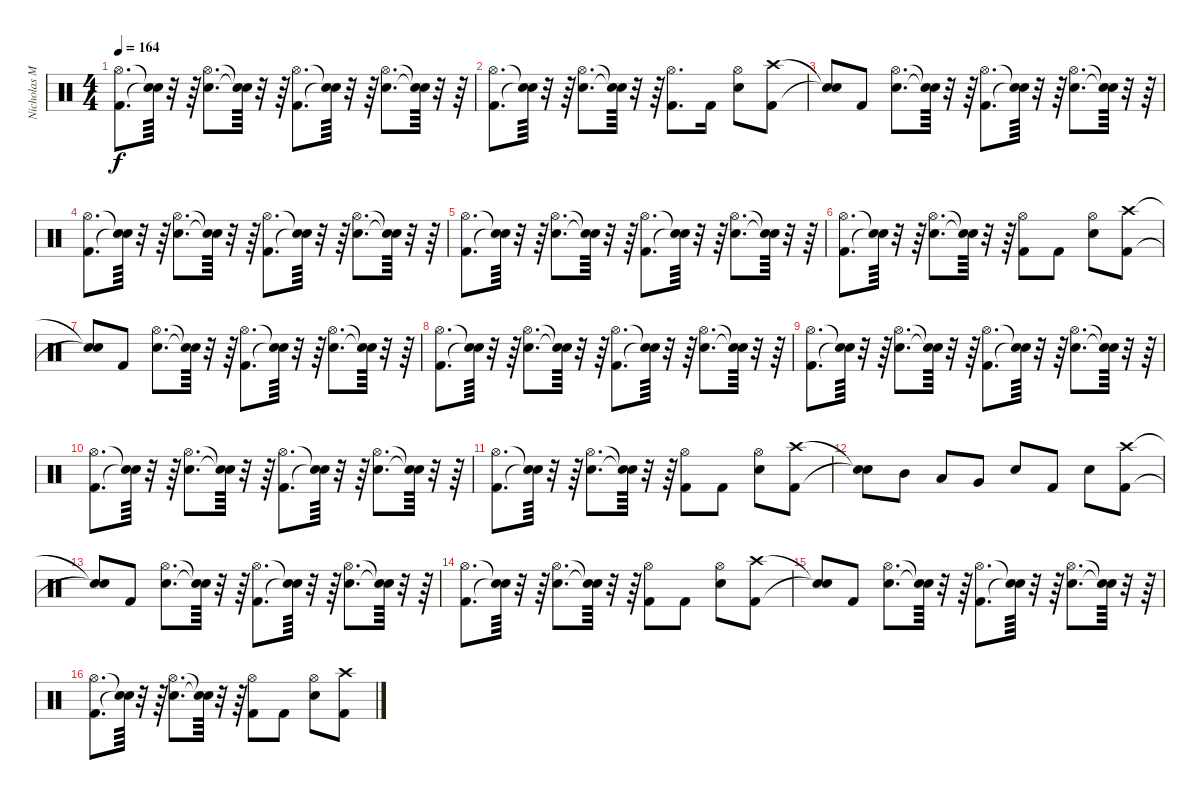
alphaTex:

\track ("Nicholas McBrain (Drums)" "Nicholas M") {instrument percussion}
\staff {score}
\articulation defaults
\ts (4 4)
\tempo 164
\clef neutral
\ks c
("Kick (hit) 2" "Hi-Hat (open)").8{d dy f} ("Snare (hit)"{t} "Snare (hit)"{t}).64 r.32 r.64 ("Snare (hit) 2" "Hi-Hat (open)").8{d} ("Snare (hit)"{t} "Snare (hit)"{t}).64 r.32 r.64 ("Kick (hit) 2" "Hi-Hat (open)").8{d} ("Snare (hit)"{t} "Snare (hit)"{t}).64 r.32 r.64 ("Snare (hit) 2" "Hi-Hat (open)").8{d} ("Snare (hit)"{t} "Snare (hit)"{t}).64 r.32 r.64 |
("Kick (hit) 2" "Hi-Hat (open)").8{d} ("Snare (hit)"{t} "Snare (hit)"{t}).64 r.32 r.64 ("Snare (hit) 2" "Hi-Hat (open)").8{d} ("Snare (hit)"{t} "Snare (hit)"{t}).64 r.32 r.64 ("Kick (hit) 2" "Hi-Hat (open)").8{d} "Kick (hit) 2".16 ("Snare (hit) 2" "Hi-Hat (open)").8 ("Kick (hit) 2" "Crash high (hit)").8 |
("Snare (hit)"{t} "Snare (hit)"{t}).8 "Kick (hit) 2".8 ("Snare (hit) 2" "Hi-Hat (open)").8{d} ("Snare (hit)"{t} "Snare (hit)"{t}).64 r.32 r.64 ("Kick (hit) 2" "Hi-Hat (open)").8{d} ("Snare (hit)"{t} "Snare (hit)"{t}).64 r.32 r.64 ("Snare (hit) 2" "Hi-Hat (open)").8{d} ("Snare (hit)"{t} "Snare (hit)"{t}).64 r.32 r.64 |
("Kick (hit) 2" "Hi-Hat (open)").8{d} ("Snare (hit)"{t} "Snare (hit)"{t}).64 r.32 r.64 ("Snare (hit) 2" "Hi-Hat (open)").8{d} ("Snare (hit)"{t} "Snare (hit)"{t}).64 r.32 r.64 ("Kick (hit) 2" "Hi-Hat (open)").8{d} ("Snare (hit)"{t} "Snare (hit)"{t}).64 r.32 r.64 ("Snare (hit) 2" "Hi-Hat (open)").8{d} ("Snare (hit)"{t} "Snare (hit)"{t}).64 r.32 r.64 |
("Kick (hit) 2" "Hi-Hat (open)").8{d} ("Snare (hit)"{t} "Snare (hit)"{t}).64 r.32 r.64 ("Snare (hit) 2" "Hi-Hat (open)").8{d} ("Snare (hit)"{t} "Snare (hit)"{t}).64 r.32 r.64 ("Kick (hit) 2" "Hi-Hat (open)").8{d} ("Snare (hit)"{t} "Snare (hit)"{t}).64 r.32 r.64 ("Snare (hit) 2" "Hi-Hat (open)").8{d} ("Snare (hit)"{t} "Snare (hit)"{t}).64 r.32 r.64 |
("Kick (hit) 2" "Hi-Hat (open)").8{d} ("Snare (hit)"{t} "Snare (hit)"{t}).64 r.32 r.64 ("Snare (hit) 2" "Hi-Hat (open)").8{d} ("Snare (hit)"{t} "Snare (hit)"{t}).64 r.32 r.64 ("Kick (hit) 2" "Hi-Hat (open)").8 "Kick (hit) 2".8 ("Snare (hit) 2" "Hi-Hat (open)").8 ("Kick (hit) 2" "Crash high (hit)").8 |
("Snare (hit)"{t} "Snare (hit)"{t}).8 "Kick (hit) 2".8 ("Snare (hit) 2" "Hi-Hat (open)").8{d} ("Snare (hit)"{t} "Snare (hit)"{t}).64 r.32 r.64 ("Kick (hit) 2" "Hi-Hat (open)").8{d} ("Snare (hit)"{t} "Snare (hit)"{t}).64 r.32 r.64 ("Snare (hit) 2" "Hi-Hat (open)").8{d} ("Snare (hit)"{t} "Snare (hit)"{t}).64 r.32 r.64 |
("Kick (hit) 2" "Hi-Hat (open)").8{d} ("Snare (hit)"{t} "Snare (hit)"{t}).64 r.32 r.64 ("Snare (hit) 2" "Hi-Hat (open)").8{d} ("Snare (hit)"{t} "Snare (hit)"{t}).64 r.32 r.64 ("Kick (hit) 2" "Hi-Hat (open)").8{d} ("Snare (hit)"{t} "Snare (hit)"{t}).64 r.32 r.64 ("Snare (hit) 2" "Hi-Hat (open)").8{d} ("Snare (hit)"{t} "Snare (hit)"{t}).64 r.32 r.64 |
("Kick (hit) 2" "Hi-Hat (open)").8{d} ("Snare (hit)"{t} "Snare (hit)"{t}).64 r.32 r.64 ("Snare (hit) 2" "Hi-Hat (open)").8{d} ("Snare (hit)"{t} "Snare (hit)"{t}).64 r.32 r.64 ("Kick (hit) 2" "Hi-Hat (open)").8{d} ("Snare (hit)"{t} "Snare (hit)"{t}).64 r.32 r.64 ("Snare (hit) 2" "Hi-Hat (open)").8{d} ("Snare (hit)"{t} "Snare (hit)"{t}).64 r.32 r.64 |
("Kick (hit) 2" "Hi-Hat (open)").8{d} ("Snare (hit)"{t} "Snare (hit)"{t}).64 r.32 r.64 ("Snare (hit) 2" "Hi-Hat (open)").8{d} ("Snare (hit)"{t} "Snare (hit)"{t}).64 r.32 r.64 ("Kick (hit) 2" "Hi-Hat (open)").8{d} ("Snare (hit)"{t} "Snare (hit)"{t}).64 r.32 r.64 ("Snare (hit) 2" "Hi-Hat (open)").8{d} ("Snare (hit)"{t} "Snare (hit)"{t}).64 r.32 r.64 |
("Kick (hit) 2" "Hi-Hat (open)").8{d} ("Snare (hit)"{t} "Snare (hit)"{t}).64 r.32 r.64 ("Snare (hit) 2" "Hi-Hat (open)").8{d} ("Snare (hit)"{t} "Snare (hit)"{t}).64 r.32 r.64 ("Kick (hit) 2" "Hi-Hat (open)").8 "Kick (hit) 2".8 ("Snare (hit) 2" "Hi-Hat (open)").8 ("Kick (hit) 2" "Crash high (hit)").8 |
("Snare (hit)"{t} "Snare (hit)"{t}).8 "Mid Tom (hit)".8 "Low Tom (hit)".8 "Very Low Tom (hit)".8 "Snare (hit) 2".8 "Kick (hit) 2".8 "Snare (hit) 2".8 ("Kick (hit) 2" "Crash high (hit)").8 |
("Snare (hit)"{t} "Snare (hit)"{t}).8 "Kick (hit) 2".8 ("Snare (hit) 2" "Hi-Hat (open)").8{d} ("Snare (hit)"{t} "Snare (hit)"{t}).64 r.32 r.64 ("Kick (hit) 2" "Hi-Hat (open)").8{d} ("Snare (hit)"{t} "Snare (hit)"{t}).64 r.32 r.64 ("Snare (hit) 2" "Hi-Hat (open)").8{d} ("Snare (hit)"{t} "Snare (hit)"{t}).64 r.32 r.64 |
("Kick (hit) 2" "Hi-Hat (open)").8{d} ("Snare (hit)"{t} "Snare (hit)"{t}).64 r.32 r.64 ("Snare (hit) 2" "Hi-Hat (open)").8{d} ("Snare (hit)"{t} "Snare (hit)"{t}).64 r.32 r.64 ("Kick (hit) 2" "Hi-Hat (open)").8 "Kick (hit) 2".8 ("Snare (hit) 2" "Hi-Hat (open)").8 ("Kick (hit) 2" "Crash high (hit)").8 |
("Snare (hit)"{t} "Snare (hit)"{t}).8 "Kick (hit) 2".8 ("Snare (hit) 2" "Hi-Hat (open)").8{d} ("Snare (hit)"{t} "Snare (hit)"{t}).64 r.32 r.64 ("Kick (hit) 2" "Hi-Hat (open)").8{d} ("Snare (hit)"{t} "Snare (hit)"{t}).64 r.32 r.64 ("Snare (hit) 2" "Hi-Hat (open)").8{d} ("Snare (hit)"{t} "Snare (hit)"{t}).64 r.32 r.64 |
("Kick (hit) 2" "Hi-Hat (open)").8{d} ("Snare (hit)"{t} "Snare (hit)"{t}).64 r.32 r.64 ("Snare (hit) 2" "Hi-Hat (open)").8{d} ("Snare (hit)"{t} "Snare (hit)"{t}).64 r.32 r.64 ("Kick (hit) 2" "Hi-Hat (open)").8 "Kick (hit) 2".8 ("Snare (hit) 2" "Hi-Hat (open)").8 ("Kick (hit) 2" "Crash high (hit)").8
